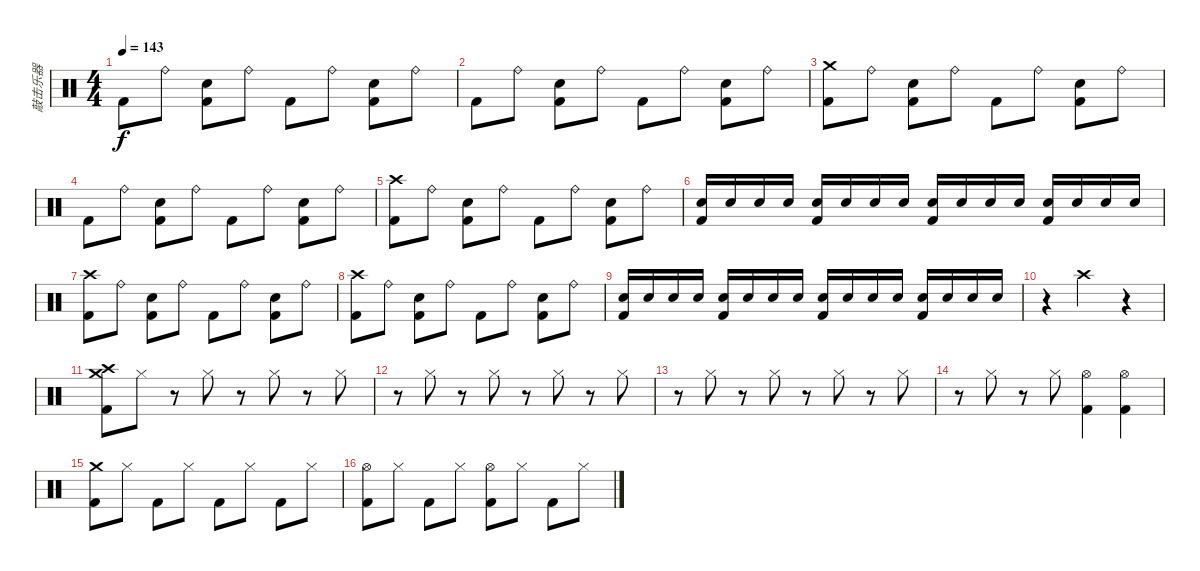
\track ("敲击乐器" "敲击乐器") {instrument percussion}
\staff {score}
\articulation defaults
\ts (4 4)
\tempo 143
\clef neutral
\ks c "Kick (hit) 2".8{dy f} "Ride (bell)".8
("Electric Snare (hit)" "Kick (hit) 2").8 "Ride (bell)".8 "Kick (hit) 2".8 "Ride (bell)".8 ("Electric Snare (hit)" "Kick (hit) 2").8 "Ride (bell)".8 |
"Kick (hit) 2".8 "Ride (bell)".8 ("Electric Snare (hit)" "Kick (hit) 2").8 "Ride (bell)".8 "Kick (hit) 2".8 "Ride (bell)".8 ("Electric Snare (hit)" "Kick (hit) 2").8 "Ride (bell)".8 |
("Crash medium (hit)" "Kick (hit) 2").8 "Ride (bell)".8 ("Electric Snare (hit)" "Kick (hit) 2").8 "Ride (bell)".8 "Kick (hit) 2".8 "Ride (bell)".8 ("Electric Snare (hit)" "Kick (hit) 2").8 "Ride (bell)".8 |
"Kick (hit) 2".8 "Ride (bell)".8 ("Electric Snare (hit)" "Kick (hit) 2").8 "Ride (bell)".8 "Kick (hit) 2".8 "Ride (bell)".8 ("Electric Snare (hit)" "Kick (hit) 2").8 "Ride (bell)".8 |
("Crash high (hit)" "Kick (hit) 2").8 "Ride (bell)".8 ("Electric Snare (hit)" "Kick (hit) 2").8 "Ride (bell)".8 "Kick (hit) 2".8 "Ride (bell)".8 ("Electric Snare (hit)" "Kick (hit) 2").8 "Ride (bell)".8 |
("Electric Snare (hit)" "Kick (hit) 2").16 "Electric Snare (hit)".16 "Electric Snare (hit)".16 "Electric Snare (hit)".16 ("Electric Snare (hit)" "Kick (hit) 2").16 "Electric Snare (hit)".16 "Electric Snare (hit)".16 "Electric Snare (hit)".16 ("Electric Snare (hit)" "Kick (hit) 2").16 "Electric Snare (hit)".16 "Electric Snare (hit)".16 "Electric Snare (hit)".16 ("Electric Snare (hit)" "Kick (hit) 2").16 "Electric Snare (hit)".16 "Electric Snare (hit)".16 "Electric Snare (hit)".16 |
("Crash high (hit)" "Kick (hit) 2").8 "Ride (bell)".8 ("Electric Snare (hit)" "Kick (hit) 2").8 "Ride (bell)".8 "Kick (hit) 2".8 "Ride (bell)".8 ("Electric Snare (hit)" "Kick (hit) 2").8 "Ride (bell)".8 |
("Crash high (hit)" "Kick (hit) 2").8 "Ride (bell)".8 ("Electric Snare (hit)" "Kick (hit) 2").8 "Ride (bell)".8 "Kick (hit) 2".8 "Ride (bell)".8 ("Electric Snare (hit)" "Kick (hit) 2").8 "Ride (bell)".8 |
("Electric Snare (hit)" "Kick (hit) 2").16 "Electric Snare (hit)".16 "Electric Snare (hit)".16 "Electric Snare (hit)".16 ("Electric Snare (hit)" "Kick (hit) 2").16 "Electric Snare (hit)".16 "Electric Snare (hit)".16 "Electric Snare (hit)".16 ("Electric Snare (hit)" "Kick (hit) 2").16 "Electric Snare (hit)".16 "Electric Snare (hit)".16 "Electric Snare (hit)".16 ("Electric Snare (hit)" "Kick (hit) 2").16 "Electric Snare (hit)".16 "Electric Snare (hit)".16 "Electric Snare (hit)".16 |
r.4{volume 0} "Crash high (hit)".2{volume 13} r.4 |
("Crash medium (hit)" "Crash high (hit)" "Kick (hit) 2").8 "Hi-Hat (closed)".8 r.8 "Hi-Hat (closed)".8 r.8 "Hi-Hat (closed)".8 r.8 "Hi-Hat (closed)".8 |
r.8 "Hi-Hat (closed)".8 r.8 "Hi-Hat (closed)".8 r.8 "Hi-Hat (closed)".8 r.8 "Hi-Hat (closed)".8 |
r.8 "Hi-Hat (closed)".8 r.8 "Hi-Hat (closed)".8 r.8 "Hi-Hat (closed)".8 r.8 "Hi-Hat (closed)".8 |
r.8 "Hi-Hat (closed)".8 r.8 "Hi-Hat (closed)".8 ("Hi-Hat (open)" "Kick (hit) 2").4 ("Hi-Hat (open)" "Kick (hit) 2").4 |
("Crash medium (hit)" "Kick (hit) 2").8 "Hi-Hat (closed)".8 "Kick (hit) 2".8 "Hi-Hat (closed)".8 "Kick (hit) 2".8 "Hi-Hat (closed)".8 "Kick (hit) 2".8 "Hi-Hat (closed)".8 |
("Hi-Hat (open)" "Kick (hit) 2").8 "Hi-Hat (closed)".8 "Kick (hit) 2".8 "Hi-Hat (closed)".8 ("Hi-Hat (open)" "Kick (hit) 2").8 "Hi-Hat (closed)".8 "Kick (hit) 2".8 "Hi-Hat (closed)".8
